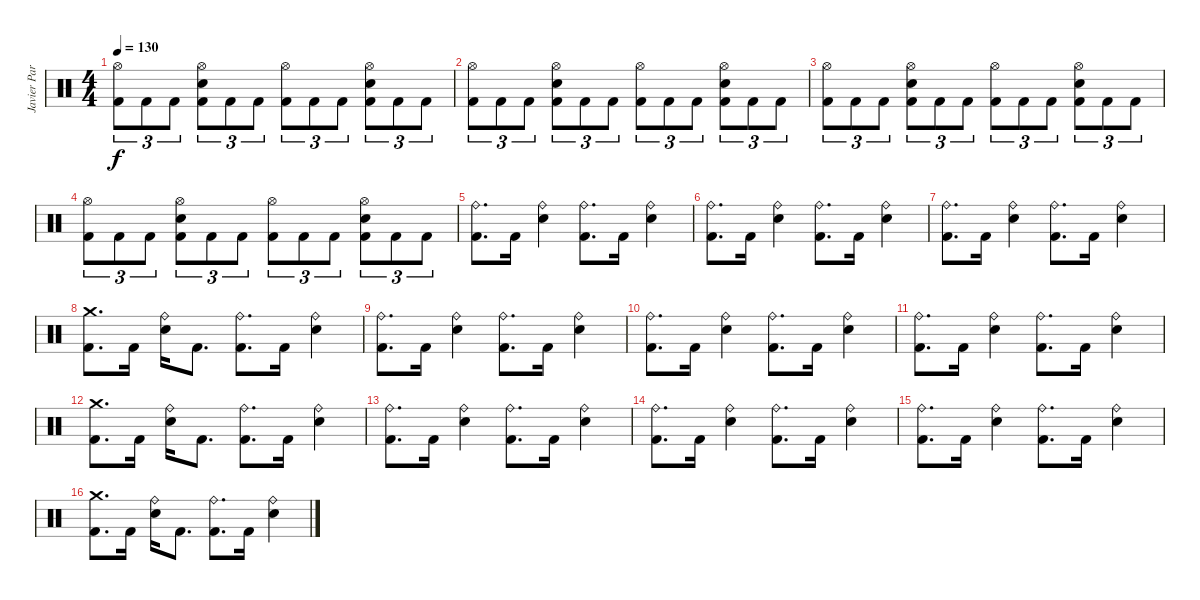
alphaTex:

\track ("Javier Partida" "Javier Par") {instrument percussion}
\staff {score}
\articulation defaults
\ts (4 4)
\tempo 130
\clef neutral
\ks c
("Hi-Hat (open)" "Kick (hit) 2").8{tu (3 2) dy f} "Kick (hit) 2".8{tu (3 2)} "Kick (hit) 2".8{tu (3 2)} ("Hi-Hat (open)" "Electric Snare (hit)" "Kick (hit) 2").8{tu (3 2)} "Kick (hit) 2".8{tu (3 2)} "Kick (hit) 2".8{tu (3 2)} ("Hi-Hat (open)" "Kick (hit) 2").8{tu (3 2)} "Kick (hit) 2".8{tu (3 2)} "Kick (hit) 2".8{tu (3 2)} ("Hi-Hat (open)" "Electric Snare (hit)" "Kick (hit) 2").8{tu (3 2)} "Kick (hit) 2".8{tu (3 2)} "Kick (hit) 2".8{tu (3 2)} |
("Hi-Hat (open)" "Kick (hit) 2").8{tu (3 2)} "Kick (hit) 2".8{tu (3 2)} "Kick (hit) 2".8{tu (3 2)} ("Hi-Hat (open)" "Electric Snare (hit)" "Kick (hit) 2").8{tu (3 2)} "Kick (hit) 2".8{tu (3 2)} "Kick (hit) 2".8{tu (3 2)} ("Hi-Hat (open)" "Kick (hit) 2").8{tu (3 2)} "Kick (hit) 2".8{tu (3 2)} "Kick (hit) 2".8{tu (3 2)} ("Hi-Hat (open)" "Electric Snare (hit)" "Kick (hit) 2").8{tu (3 2)} "Kick (hit) 2".8{tu (3 2)} "Kick (hit) 2".8{tu (3 2)} |
("Hi-Hat (open)" "Kick (hit) 2").8{tu (3 2)} "Kick (hit) 2".8{tu (3 2)} "Kick (hit) 2".8{tu (3 2)} ("Hi-Hat (open)" "Electric Snare (hit)" "Kick (hit) 2").8{tu (3 2)} "Kick (hit) 2".8{tu (3 2)} "Kick (hit) 2".8{tu (3 2)} ("Hi-Hat (open)" "Kick (hit) 2").8{tu (3 2)} "Kick (hit) 2".8{tu (3 2)} "Kick (hit) 2".8{tu (3 2)} ("Hi-Hat (open)" "Electric Snare (hit)" "Kick (hit) 2").8{tu (3 2)} "Kick (hit) 2".8{tu (3 2)} "Kick (hit) 2".8{tu (3 2)} |
("Hi-Hat (open)" "Kick (hit) 2").8{tu (3 2)} "Kick (hit) 2".8{tu (3 2)} "Kick (hit) 2".8{tu (3 2)} ("Hi-Hat (open)" "Electric Snare (hit)" "Kick (hit) 2").8{tu (3 2)} "Kick (hit) 2".8{tu (3 2)} "Kick (hit) 2".8{tu (3 2)} ("Hi-Hat (open)" "Kick (hit) 2").8{tu (3 2)} "Kick (hit) 2".8{tu (3 2)} "Kick (hit) 2".8{tu (3 2)} ("Hi-Hat (open)" "Electric Snare (hit)" "Kick (hit) 2").8{tu (3 2)} "Kick (hit) 2".8{tu (3 2)} "Kick (hit) 2".8{tu (3 2)} |
("Ride (bell)" "Kick (hit) 2").8{d} "Kick (hit) 2".16 ("Ride (bell)" "Electric Snare (hit)").4 ("Ride (bell)" "Kick (hit) 2").8{d} "Kick (hit) 2".16 ("Ride (bell)" "Electric Snare (hit)").4 |
("Ride (bell)" "Kick (hit) 2").8{d} "Kick (hit) 2".16 ("Ride (bell)" "Electric Snare (hit)").4 ("Ride (bell)" "Kick (hit) 2").8{d} "Kick (hit) 2".16 ("Ride (bell)" "Electric Snare (hit)").4 |
("Ride (bell)" "Kick (hit) 2").8{d} "Kick (hit) 2".16 ("Ride (bell)" "Electric Snare (hit)").4 ("Ride (bell)" "Kick (hit) 2").8{d} "Kick (hit) 2".16 ("Ride (bell)" "Electric Snare (hit)").4 |
("Crash medium (hit)" "Kick (hit) 2").8{d} "Kick (hit) 2".16 ("Ride (bell)" "Electric Snare (hit)").16 "Kick (hit) 2".8{d} ("Ride (bell)" "Kick (hit) 2").8{d} "Kick (hit) 2".16 ("Ride (bell)" "Electric Snare (hit)").4 |
("Ride (bell)" "Kick (hit) 2").8{d} "Kick (hit) 2".16 ("Ride (bell)" "Electric Snare (hit)").4 ("Ride (bell)" "Kick (hit) 2").8{d} "Kick (hit) 2".16 ("Ride (bell)" "Electric Snare (hit)").4 |
("Ride (bell)" "Kick (hit) 2").8{d} "Kick (hit) 2".16 ("Ride (bell)" "Electric Snare (hit)").4 ("Ride (bell)" "Kick (hit) 2").8{d} "Kick (hit) 2".16 ("Ride (bell)" "Electric Snare (hit)").4 |
("Ride (bell)" "Kick (hit) 2").8{d} "Kick (hit) 2".16 ("Ride (bell)" "Electric Snare (hit)").4 ("Ride (bell)" "Kick (hit) 2").8{d} "Kick (hit) 2".16 ("Ride (bell)" "Electric Snare (hit)").4 |
("Crash medium (hit)" "Kick (hit) 2").8{d} "Kick (hit) 2".16 ("Ride (bell)" "Electric Snare (hit)").16 "Kick (hit) 2".8{d} ("Ride (bell)" "Kick (hit) 2").8{d} "Kick (hit) 2".16 ("Ride (bell)" "Electric Snare (hit)").4 |
("Ride (bell)" "Kick (hit) 2").8{d} "Kick (hit) 2".16 ("Ride (bell)" "Electric Snare (hit)").4 ("Ride (bell)" "Kick (hit) 2").8{d} "Kick (hit) 2".16 ("Ride (bell)" "Electric Snare (hit)").4 |
("Ride (bell)" "Kick (hit) 2").8{d} "Kick (hit) 2".16 ("Ride (bell)" "Electric Snare (hit)").4 ("Ride (bell)" "Kick (hit) 2").8{d} "Kick (hit) 2".16 ("Ride (bell)" "Electric Snare (hit)").4 |
("Ride (bell)" "Kick (hit) 2").8{d} "Kick (hit) 2".16 ("Ride (bell)" "Electric Snare (hit)").4 ("Ride (bell)" "Kick (hit) 2").8{d} "Kick (hit) 2".16 ("Ride (bell)" "Electric Snare (hit)").4 |
("Crash medium (hit)" "Kick (hit) 2").8{d} "Kick (hit) 2".16 ("Ride (bell)" "Electric Snare (hit)").16 "Kick (hit) 2".8{d} ("Ride (bell)" "Kick (hit) 2").8{d} "Kick (hit) 2".16 ("Ride (bell)" "Electric Snare (hit)").4
